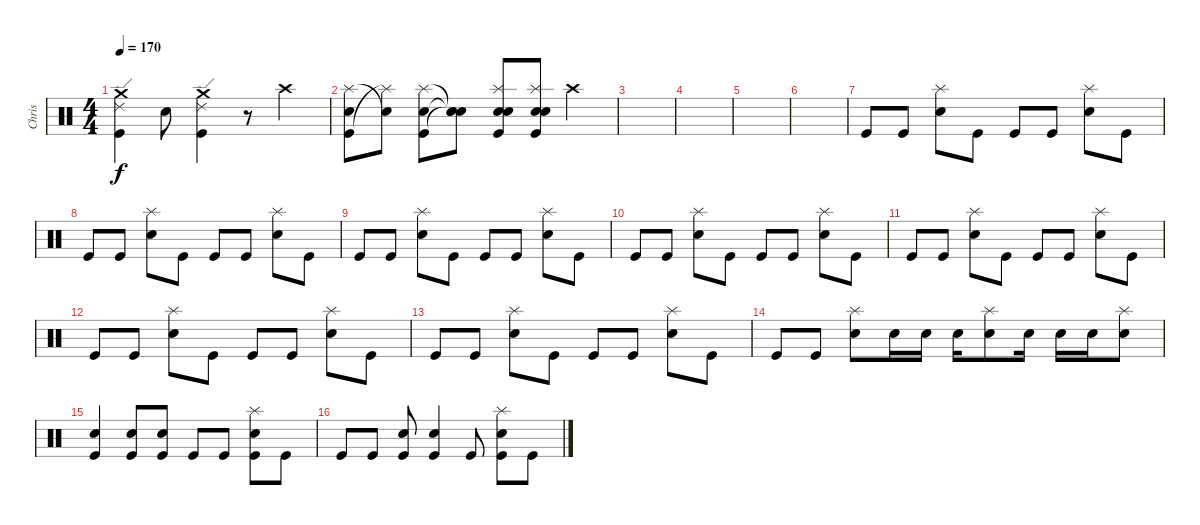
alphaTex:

\track ("Chris" "Chris") {instrument percussion}
\staff {score}
\articulation defaults
\ts (4 4)
\tempo 170
\clef neutral
\ks c
("Kick (hit)" "Ride (edge) 2" "Crash medium (hit)").4{dy f} "Snare (hit) 2".8 ("Kick (hit)" "Ride (edge) 2" "Crash medium (hit)").4 r.8 "Crash high (hit)".4 |
("Kick (hit)" "Splash (hit)" "Snare (hit) 2").8 ("Splash (hit)"{t} "Snare (hit)"{t}).8 ("Kick (hit)" "Splash (hit)" "Snare (hit) 2").8 ("Snare (hit)"{t} "Snare (hit)"{t} "Snare (hit)"{t}).8 ("Kick (hit)" "Splash (hit)" "Snare (hit) 2" "Electric Snare (hit)").8 ("Kick (hit)" "Splash (hit)" "Snare (hit) 2" "Electric Snare (hit)").8 "Crash high (hit)".4 |
|
|
|
|
"Kick (hit)".8 "Kick (hit)".8 ("Splash (hit)" "Snare (hit) 2").8 "Kick (hit)".8 "Kick (hit)".8 "Kick (hit)".8 ("Splash (hit)" "Snare (hit) 2").8 "Kick (hit)".8 |
"Kick (hit)".8 "Kick (hit)".8 ("Splash (hit)" "Snare (hit) 2").8 "Kick (hit)".8 "Kick (hit)".8 "Kick (hit)".8 ("Splash (hit)" "Snare (hit) 2").8 "Kick (hit)".8 |
"Kick (hit)".8 "Kick (hit)".8 ("Splash (hit)" "Snare (hit) 2").8 "Kick (hit)".8 "Kick (hit)".8 "Kick (hit)".8 ("Splash (hit)" "Snare (hit) 2").8 "Kick (hit)".8 |
"Kick (hit)".8 "Kick (hit)".8 ("Splash (hit)" "Snare (hit) 2").8 "Kick (hit)".8 "Kick (hit)".8 "Kick (hit)".8 ("Splash (hit)" "Snare (hit) 2").8 "Kick (hit)".8 |
"Kick (hit)".8 "Kick (hit)".8 ("Splash (hit)" "Snare (hit) 2").8 "Kick (hit)".8 "Kick (hit)".8 "Kick (hit)".8 ("Splash (hit)" "Snare (hit) 2").8 "Kick (hit)".8 |
"Kick (hit)".8 "Kick (hit)".8 ("Splash (hit)" "Snare (hit) 2").8 "Kick (hit)".8 "Kick (hit)".8 "Kick (hit)".8 ("Splash (hit)" "Snare (hit) 2").8 "Kick (hit)".8 |
"Kick (hit)".8 "Kick (hit)".8 ("Splash (hit)" "Snare (hit) 2").8 "Kick (hit)".8 "Kick (hit)".8 "Kick (hit)".8 ("Splash (hit)" "Snare (hit) 2").8 "Kick (hit)".8 |
"Kick (hit)".8 "Kick (hit)".8 ("Splash (hit)" "Snare (hit) 2").8 "Electric Snare (hit)".16 "Electric Snare (hit)".16 "Electric Snare (hit)".16 ("Splash (hit)" "Snare (hit) 2").8 "Electric Snare (hit)".16 "Electric Snare (hit)".16 "Electric Snare (hit)".16 ("Splash (hit)" "Snare (hit) 2").8 |
("Kick (hit)" "Snare (hit) 2").4 ("Kick (hit)" "Snare (hit) 2").8 ("Kick (hit)" "Snare (hit) 2").8 "Kick (hit)".8 "Kick (hit)".8 ("Kick (hit)" "Splash (hit)" "Snare (hit) 2").8 "Kick (hit)".8 |
"Kick (hit)".8 "Kick (hit)".8 ("Kick (hit)" "Snare (hit) 2").8 ("Kick (hit)" "Snare (hit) 2").4 "Kick (hit)".8 ("Kick (hit)" "Splash (hit)" "Snare (hit) 2").8 "Kick (hit)".8
